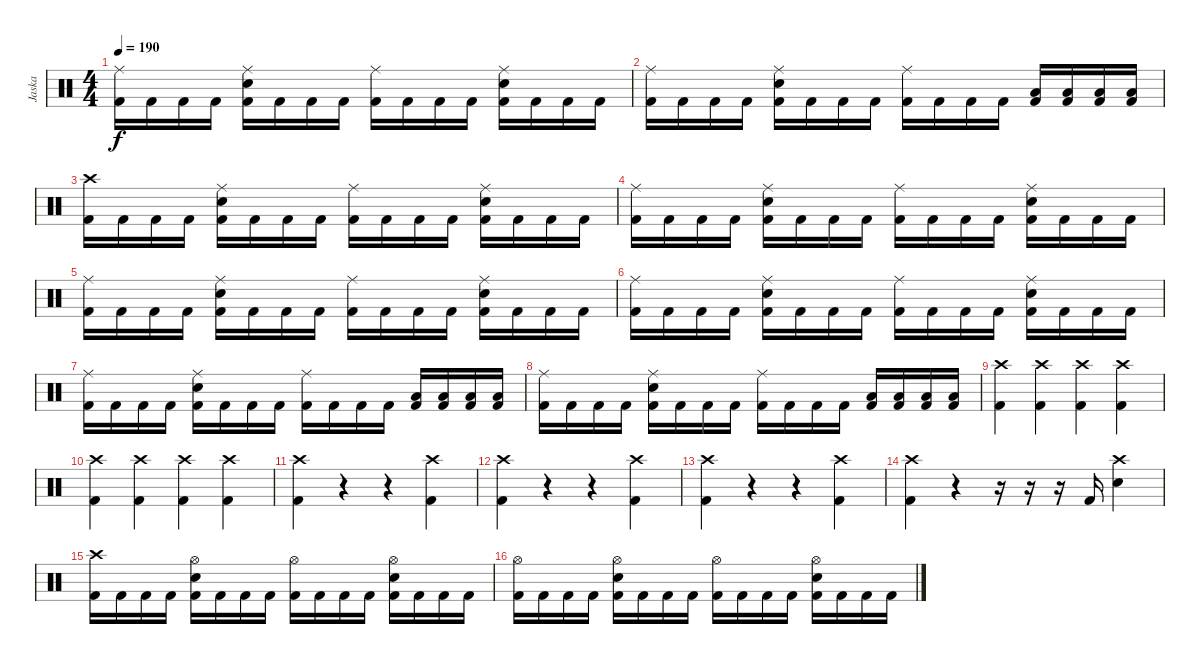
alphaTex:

\track ("Jaska" "Jaska") {instrument percussion}
\staff {score}
\articulation defaults
\ts (4 4)
\tempo 190
\clef neutral
\ks c
("Ride (middle)" "Kick (hit) 2").16{dy f} "Kick (hit) 2".16 "Kick (hit) 2".16 "Kick (hit) 2".16 ("Ride (middle)" "Electric Snare (hit)" "Kick (hit) 2").16 "Kick (hit) 2".16 "Kick (hit) 2".16 "Kick (hit) 2".16 ("Ride (middle)" "Kick (hit) 2").16 "Kick (hit) 2".16 "Kick (hit) 2".16 "Kick (hit) 2".16 ("Ride (middle)" "Electric Snare (hit)" "Kick (hit) 2").16 "Kick (hit) 2".16 "Kick (hit) 2".16 "Kick (hit) 2".16 |
("Ride (middle)" "Kick (hit) 2").16 "Kick (hit) 2".16 "Kick (hit) 2".16 "Kick (hit) 2".16 ("Ride (middle)" "Electric Snare (hit)" "Kick (hit) 2").16 "Kick (hit) 2".16 "Kick (hit) 2".16 "Kick (hit) 2".16 ("Ride (middle)" "Kick (hit) 2").16 "Kick (hit) 2".16 "Kick (hit) 2".16 "Kick (hit) 2".16 ("Low Tom (hit)" "Kick (hit) 2").16 ("Low Tom (hit)" "Kick (hit) 2").16 ("Low Tom (hit)" "Kick (hit) 2").16 ("Low Tom (hit)" "Kick (hit) 2").16 |
("Crash high (hit)" "Kick (hit) 2").16 "Kick (hit) 2".16 "Kick (hit) 2".16 "Kick (hit) 2".16 ("Ride (middle)" "Electric Snare (hit)" "Kick (hit) 2").16 "Kick (hit) 2".16 "Kick (hit) 2".16 "Kick (hit) 2".16 ("Ride (middle)" "Kick (hit) 2").16 "Kick (hit) 2".16 "Kick (hit) 2".16 "Kick (hit) 2".16 ("Ride (middle)" "Electric Snare (hit)" "Kick (hit) 2").16 "Kick (hit) 2".16 "Kick (hit) 2".16 "Kick (hit) 2".16 |
("Ride (middle)" "Kick (hit) 2").16 "Kick (hit) 2".16 "Kick (hit) 2".16 "Kick (hit) 2".16 ("Ride (middle)" "Electric Snare (hit)" "Kick (hit) 2").16 "Kick (hit) 2".16 "Kick (hit) 2".16 "Kick (hit) 2".16 ("Ride (middle)" "Kick (hit) 2").16 "Kick (hit) 2".16 "Kick (hit) 2".16 "Kick (hit) 2".16 ("Ride (middle)" "Electric Snare (hit)" "Kick (hit) 2").16 "Kick (hit) 2".16 "Kick (hit) 2".16 "Kick (hit) 2".16 |
("Ride (middle)" "Kick (hit) 2").16 "Kick (hit) 2".16 "Kick (hit) 2".16 "Kick (hit) 2".16 ("Ride (middle)" "Electric Snare (hit)" "Kick (hit) 2").16 "Kick (hit) 2".16 "Kick (hit) 2".16 "Kick (hit) 2".16 ("Ride (middle)" "Kick (hit) 2").16 "Kick (hit) 2".16 "Kick (hit) 2".16 "Kick (hit) 2".16 ("Ride (middle)" "Electric Snare (hit)" "Kick (hit) 2").16 "Kick (hit) 2".16 "Kick (hit) 2".16 "Kick (hit) 2".16 |
("Ride (middle)" "Kick (hit) 2").16 "Kick (hit) 2".16 "Kick (hit) 2".16 "Kick (hit) 2".16 ("Ride (middle)" "Electric Snare (hit)" "Kick (hit) 2").16 "Kick (hit) 2".16 "Kick (hit) 2".16 "Kick (hit) 2".16 ("Ride (middle)" "Kick (hit) 2").16 "Kick (hit) 2".16 "Kick (hit) 2".16 "Kick (hit) 2".16 ("Ride (middle)" "Electric Snare (hit)" "Kick (hit) 2").16 "Kick (hit) 2".16 "Kick (hit) 2".16 "Kick (hit) 2".16 |
("Ride (middle)" "Kick (hit) 2").16 "Kick (hit) 2".16 "Kick (hit) 2".16 "Kick (hit) 2".16 ("Ride (middle)" "Electric Snare (hit)" "Kick (hit) 2").16 "Kick (hit) 2".16 "Kick (hit) 2".16 "Kick (hit) 2".16 ("Ride (middle)" "Kick (hit) 2").16 "Kick (hit) 2".16 "Kick (hit) 2".16 "Kick (hit) 2".16 ("Low Tom (hit)" "Kick (hit) 2").16 ("Low Tom (hit)" "Kick (hit) 2").16 ("Low Tom (hit)" "Kick (hit) 2").16 ("Low Tom (hit)" "Kick (hit) 2").16 |
("Ride (middle)" "Kick (hit) 2").16 "Kick (hit) 2".16 "Kick (hit) 2".16 "Kick (hit) 2".16 ("Ride (middle)" "Electric Snare (hit)" "Kick (hit) 2").16 "Kick (hit) 2".16 "Kick (hit) 2".16 "Kick (hit) 2".16 ("Ride (middle)" "Kick (hit) 2").16 "Kick (hit) 2".16 "Kick (hit) 2".16 "Kick (hit) 2".16 ("Low Tom (hit)" "Kick (hit) 2").16 ("Low Tom (hit)" "Kick (hit) 2").16 ("Low Tom (hit)" "Kick (hit) 2").16 ("Low Tom (hit)" "Kick (hit) 2").16 |
("Crash high (hit)" "Kick (hit) 2").4 ("Crash high (hit)" "Kick (hit) 2").4 ("Crash high (hit)" "Kick (hit) 2").4 ("Crash high (hit)" "Kick (hit) 2").4 |
("Crash high (hit)" "Kick (hit) 2").4 ("Crash high (hit)" "Kick (hit) 2").4 ("Crash high (hit)" "Kick (hit) 2").4 ("Crash high (hit)" "Kick (hit) 2").4 |
("Crash high (hit)" "Kick (hit) 2").4 r.4 r.4 ("Crash high (hit)" "Kick (hit) 2").4 |
("Crash high (hit)" "Kick (hit) 2").4 r.4 r.4 ("Crash high (hit)" "Kick (hit) 2").4 |
("Crash high (hit)" "Kick (hit) 2").4 r.4 r.4 ("Crash high (hit)" "Kick (hit) 2").4 |
("Crash high (hit)" "Kick (hit) 2").4 r.4 r.16 r.16 r.16 "Kick (hit) 2".16 ("Crash high (hit)" "Electric Snare (hit)").4 |
("Crash high (hit)" "Kick (hit) 2").16 "Kick (hit) 2".16 "Kick (hit) 2".16 "Kick (hit) 2".16 ("Hi-Hat (open)" "Electric Snare (hit)" "Kick (hit) 2").16 "Kick (hit) 2".16 "Kick (hit) 2".16 "Kick (hit) 2".16 ("Hi-Hat (open)" "Kick (hit) 2").16 "Kick (hit) 2".16 "Kick (hit) 2".16 "Kick (hit) 2".16 ("Hi-Hat (open)" "Electric Snare (hit)" "Kick (hit) 2").16 "Kick (hit) 2".16 "Kick (hit) 2".16 "Kick (hit) 2".16 |
("Hi-Hat (open)" "Kick (hit) 2").16 "Kick (hit) 2".16 "Kick (hit) 2".16 "Kick (hit) 2".16 ("Hi-Hat (open)" "Electric Snare (hit)" "Kick (hit) 2").16 "Kick (hit) 2".16 "Kick (hit) 2".16 "Kick (hit) 2".16 ("Hi-Hat (open)" "Kick (hit) 2").16 "Kick (hit) 2".16 "Kick (hit) 2".16 "Kick (hit) 2".16 ("Hi-Hat (open)" "Electric Snare (hit)" "Kick (hit) 2").16 "Kick (hit) 2".16 "Kick (hit) 2".16 "Kick (hit) 2".16
